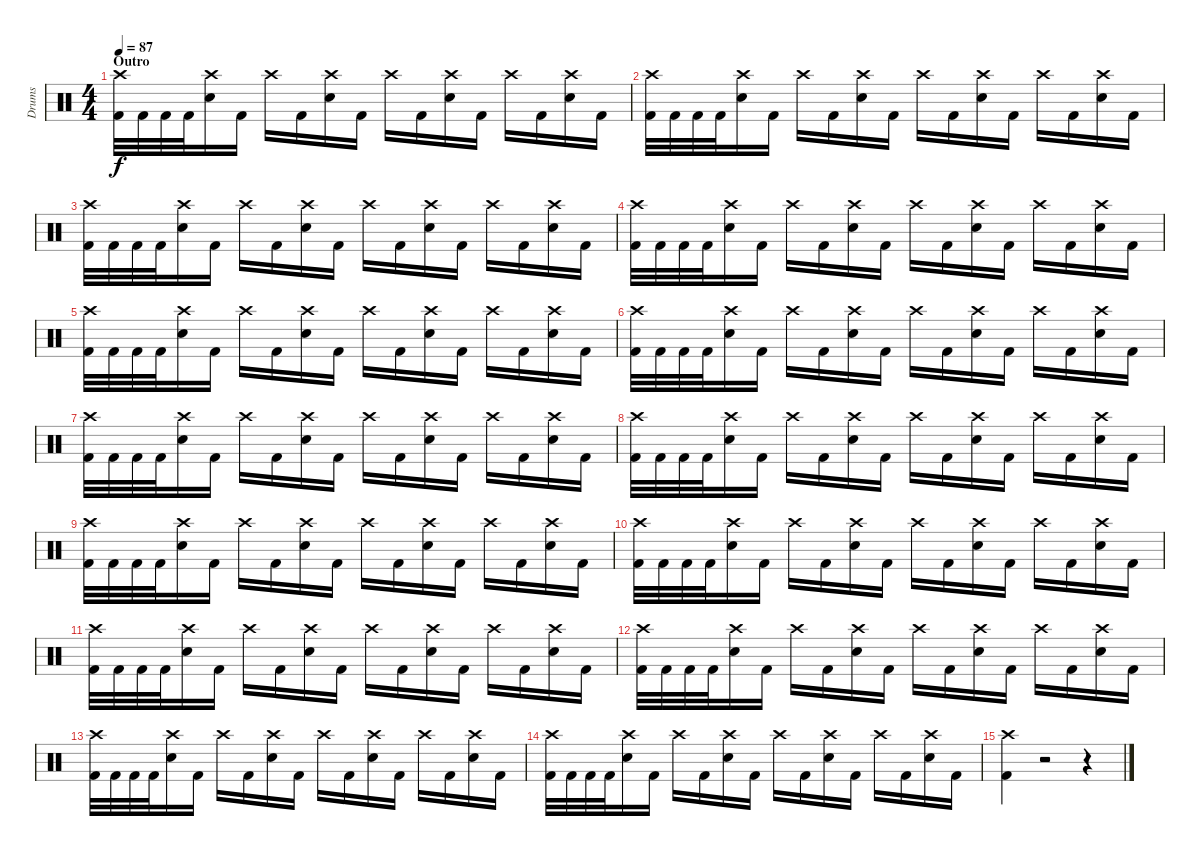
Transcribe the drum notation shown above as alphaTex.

\track ("Drums" "Drums") {instrument percussion}
\staff {score}
\articulation defaults
\ts (4 4)
\section ("" "Outro")
\tempo 87
\clef neutral
\ks c
("Crash high (hit)" "Kick (hit) 2").32{dy f} "Kick (hit) 2".32 "Kick (hit) 2".32 "Kick (hit) 2".32 ("Crash high (hit)" "Electric Snare (hit)").16 "Kick (hit) 2".16 "Crash high (hit)".16 "Kick (hit) 2".16 ("Crash high (hit)" "Electric Snare (hit)").16 "Kick (hit) 2".16 "Crash high (hit)".16 "Kick (hit) 2".16 ("Crash high (hit)" "Electric Snare (hit)").16 "Kick (hit) 2".16 "Crash high (hit)".16 "Kick (hit) 2".16 ("Crash high (hit)" "Electric Snare (hit)").16 "Kick (hit) 2".16 |
("Crash high (hit)" "Kick (hit) 2").32 "Kick (hit) 2".32 "Kick (hit) 2".32 "Kick (hit) 2".32 ("Crash high (hit)" "Electric Snare (hit)").16 "Kick (hit) 2".16 "Crash high (hit)".16 "Kick (hit) 2".16 ("Crash high (hit)" "Electric Snare (hit)").16 "Kick (hit) 2".16 "Crash high (hit)".16 "Kick (hit) 2".16 ("Crash high (hit)" "Electric Snare (hit)").16 "Kick (hit) 2".16 "Crash high (hit)".16 "Kick (hit) 2".16 ("Crash high (hit)" "Electric Snare (hit)").16 "Kick (hit) 2".16 |
("Crash high (hit)" "Kick (hit) 2").32 "Kick (hit) 2".32 "Kick (hit) 2".32 "Kick (hit) 2".32 ("Crash high (hit)" "Electric Snare (hit)").16 "Kick (hit) 2".16 "Crash high (hit)".16 "Kick (hit) 2".16 ("Crash high (hit)" "Electric Snare (hit)").16 "Kick (hit) 2".16 "Crash high (hit)".16 "Kick (hit) 2".16 ("Crash high (hit)" "Electric Snare (hit)").16 "Kick (hit) 2".16 "Crash high (hit)".16 "Kick (hit) 2".16 ("Crash high (hit)" "Electric Snare (hit)").16 "Kick (hit) 2".16 |
("Crash high (hit)" "Kick (hit) 2").32 "Kick (hit) 2".32 "Kick (hit) 2".32 "Kick (hit) 2".32 ("Crash high (hit)" "Electric Snare (hit)").16 "Kick (hit) 2".16 "Crash high (hit)".16 "Kick (hit) 2".16 ("Crash high (hit)" "Electric Snare (hit)").16 "Kick (hit) 2".16 "Crash high (hit)".16 "Kick (hit) 2".16 ("Crash high (hit)" "Electric Snare (hit)").16 "Kick (hit) 2".16 "Crash high (hit)".16 "Kick (hit) 2".16 ("Crash high (hit)" "Electric Snare (hit)").16 "Kick (hit) 2".16 |
("Crash high (hit)" "Kick (hit) 2").32 "Kick (hit) 2".32 "Kick (hit) 2".32 "Kick (hit) 2".32 ("Crash high (hit)" "Electric Snare (hit)").16 "Kick (hit) 2".16 "Crash high (hit)".16 "Kick (hit) 2".16 ("Crash high (hit)" "Electric Snare (hit)").16 "Kick (hit) 2".16 "Crash high (hit)".16 "Kick (hit) 2".16 ("Crash high (hit)" "Electric Snare (hit)").16 "Kick (hit) 2".16 "Crash high (hit)".16 "Kick (hit) 2".16 ("Crash high (hit)" "Electric Snare (hit)").16 "Kick (hit) 2".16 |
("Crash high (hit)" "Kick (hit) 2").32 "Kick (hit) 2".32 "Kick (hit) 2".32 "Kick (hit) 2".32 ("Crash high (hit)" "Electric Snare (hit)").16 "Kick (hit) 2".16 "Crash high (hit)".16 "Kick (hit) 2".16 ("Crash high (hit)" "Electric Snare (hit)").16 "Kick (hit) 2".16 "Crash high (hit)".16 "Kick (hit) 2".16 ("Crash high (hit)" "Electric Snare (hit)").16 "Kick (hit) 2".16 "Crash high (hit)".16 "Kick (hit) 2".16 ("Crash high (hit)" "Electric Snare (hit)").16 "Kick (hit) 2".16 |
("Crash high (hit)" "Kick (hit) 2").32 "Kick (hit) 2".32 "Kick (hit) 2".32 "Kick (hit) 2".32 ("Crash high (hit)" "Electric Snare (hit)").16 "Kick (hit) 2".16 "Crash high (hit)".16 "Kick (hit) 2".16 ("Crash high (hit)" "Electric Snare (hit)").16 "Kick (hit) 2".16 "Crash high (hit)".16 "Kick (hit) 2".16 ("Crash high (hit)" "Electric Snare (hit)").16 "Kick (hit) 2".16 "Crash high (hit)".16 "Kick (hit) 2".16 ("Crash high (hit)" "Electric Snare (hit)").16 "Kick (hit) 2".16 |
("Crash high (hit)" "Kick (hit) 2").32 "Kick (hit) 2".32 "Kick (hit) 2".32 "Kick (hit) 2".32 ("Crash high (hit)" "Electric Snare (hit)").16 "Kick (hit) 2".16 "Crash high (hit)".16 "Kick (hit) 2".16 ("Crash high (hit)" "Electric Snare (hit)").16 "Kick (hit) 2".16 "Crash high (hit)".16 "Kick (hit) 2".16 ("Crash high (hit)" "Electric Snare (hit)").16 "Kick (hit) 2".16 "Crash high (hit)".16 "Kick (hit) 2".16 ("Crash high (hit)" "Electric Snare (hit)").16 "Kick (hit) 2".16 |
("Crash high (hit)" "Kick (hit) 2").32 "Kick (hit) 2".32 "Kick (hit) 2".32 "Kick (hit) 2".32 ("Crash high (hit)" "Electric Snare (hit)").16 "Kick (hit) 2".16 "Crash high (hit)".16 "Kick (hit) 2".16 ("Crash high (hit)" "Electric Snare (hit)").16 "Kick (hit) 2".16 "Crash high (hit)".16 "Kick (hit) 2".16 ("Crash high (hit)" "Electric Snare (hit)").16 "Kick (hit) 2".16 "Crash high (hit)".16 "Kick (hit) 2".16 ("Crash high (hit)" "Electric Snare (hit)").16 "Kick (hit) 2".16 |
("Crash high (hit)" "Kick (hit) 2").32 "Kick (hit) 2".32 "Kick (hit) 2".32 "Kick (hit) 2".32 ("Crash high (hit)" "Electric Snare (hit)").16 "Kick (hit) 2".16 "Crash high (hit)".16 "Kick (hit) 2".16 ("Crash high (hit)" "Electric Snare (hit)").16 "Kick (hit) 2".16 "Crash high (hit)".16 "Kick (hit) 2".16 ("Crash high (hit)" "Electric Snare (hit)").16 "Kick (hit) 2".16 "Crash high (hit)".16 "Kick (hit) 2".16 ("Crash high (hit)" "Electric Snare (hit)").16 "Kick (hit) 2".16 |
("Crash high (hit)" "Kick (hit) 2").32 "Kick (hit) 2".32 "Kick (hit) 2".32 "Kick (hit) 2".32 ("Crash high (hit)" "Electric Snare (hit)").16 "Kick (hit) 2".16 "Crash high (hit)".16 "Kick (hit) 2".16 ("Crash high (hit)" "Electric Snare (hit)").16 "Kick (hit) 2".16 "Crash high (hit)".16 "Kick (hit) 2".16 ("Crash high (hit)" "Electric Snare (hit)").16 "Kick (hit) 2".16 "Crash high (hit)".16 "Kick (hit) 2".16 ("Crash high (hit)" "Electric Snare (hit)").16 "Kick (hit) 2".16 |
("Crash high (hit)" "Kick (hit) 2").32 "Kick (hit) 2".32 "Kick (hit) 2".32 "Kick (hit) 2".32 ("Crash high (hit)" "Electric Snare (hit)").16 "Kick (hit) 2".16 "Crash high (hit)".16 "Kick (hit) 2".16 ("Crash high (hit)" "Electric Snare (hit)").16 "Kick (hit) 2".16 "Crash high (hit)".16 "Kick (hit) 2".16 ("Crash high (hit)" "Electric Snare (hit)").16 "Kick (hit) 2".16 "Crash high (hit)".16 "Kick (hit) 2".16 ("Crash high (hit)" "Electric Snare (hit)").16 "Kick (hit) 2".16 |
("Crash high (hit)" "Kick (hit) 2").32 "Kick (hit) 2".32 "Kick (hit) 2".32 "Kick (hit) 2".32 ("Crash high (hit)" "Electric Snare (hit)").16 "Kick (hit) 2".16 "Crash high (hit)".16 "Kick (hit) 2".16 ("Crash high (hit)" "Electric Snare (hit)").16 "Kick (hit) 2".16 "Crash high (hit)".16 "Kick (hit) 2".16 ("Crash high (hit)" "Electric Snare (hit)").16 "Kick (hit) 2".16 "Crash high (hit)".16 "Kick (hit) 2".16 ("Crash high (hit)" "Electric Snare (hit)").16 "Kick (hit) 2".16 |
("Crash high (hit)" "Kick (hit) 2").32 "Kick (hit) 2".32 "Kick (hit) 2".32 "Kick (hit) 2".32 ("Crash high (hit)" "Electric Snare (hit)").16 "Kick (hit) 2".16 "Crash high (hit)".16 "Kick (hit) 2".16 ("Crash high (hit)" "Electric Snare (hit)").16 "Kick (hit) 2".16 "Crash high (hit)".16 "Kick (hit) 2".16 ("Crash high (hit)" "Electric Snare (hit)").16 "Kick (hit) 2".16 "Crash high (hit)".16 "Kick (hit) 2".16 ("Crash high (hit)" "Electric Snare (hit)").16 "Kick (hit) 2".16 |
("Crash high (hit)" "Kick (hit) 2").4 r.2 r.4
